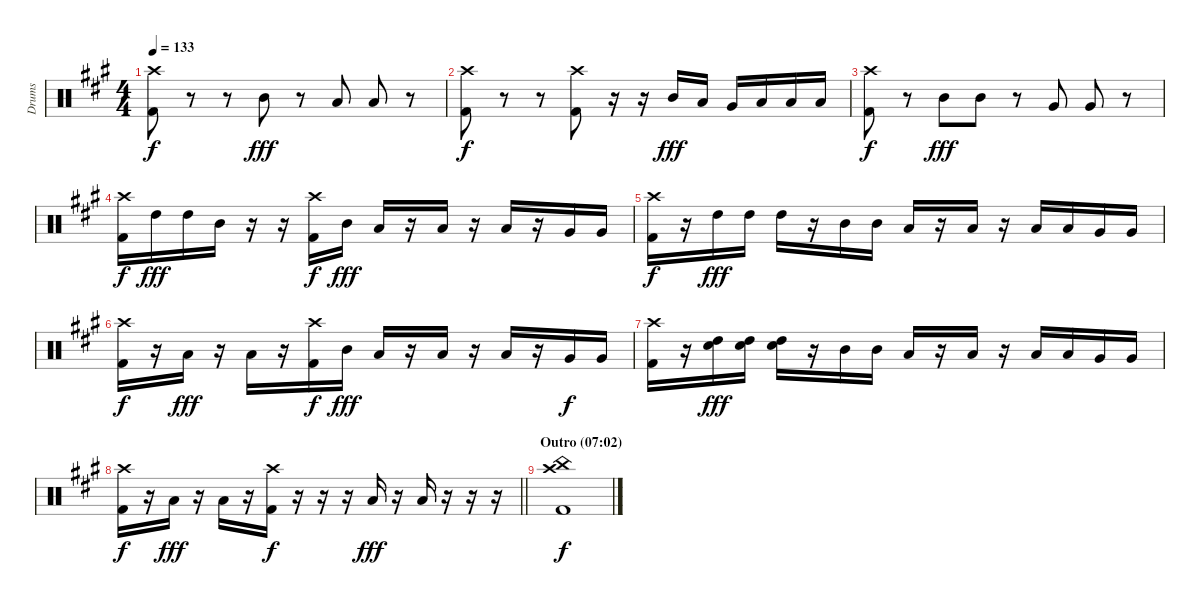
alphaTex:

\track ("Drums" "Drums") {instrument percussion}
\staff {score}
\articulation defaults
\ts (4 4)
\tempo 133
\clef neutral
\ks a
("Crash high (hit)" "Kick (hit) 2").8{dy f} r.8 r.8 "Mid Tom (hit)".8{dy fff} r.8 "Low Tom (hit)".8 "Low Tom (hit)".8 r.8 |
("Crash high (hit)" "Kick (hit) 2").8{dy f} r.8 r.8 ("Crash high (hit)" "Kick (hit) 2").8 r.16 r.16 "Mid Tom (hit)".16{dy fff} "Low Tom (hit)".16 "Very Low Tom (hit)".16 "Low Floor Tom (hit)".16 "Low Floor Tom (hit)".16 "Low Floor Tom (hit)".16 |
("Crash high (hit)" "Kick (hit) 2").8{dy f} r.8 "Mid Tom (hit)".8{dy fff} "Mid Tom (hit)".8 r.8 "Very Low Tom (hit)".8 "Very Low Tom (hit)".8 r.8 |
("Crash high (hit)" "Kick (hit) 2").16{dy f} "High Tom (hit)".16{dy fff} "High Tom (hit)".16 "Mid Tom (hit)".16 r.16 r.16 ("Crash high (hit)" "Kick (hit) 2").16{dy f} "Mid Tom (hit)".16{dy fff} "Low Tom (hit)".16 r.16 "Low Tom (hit)".16 r.16 "Low Tom (hit)".16 r.16 "Very Low Tom (hit)".16 "Very Low Tom (hit)".16 |
("Crash high (hit)" "Kick (hit) 2").16{dy f} r.16 "High Tom (hit)".16{dy fff} "High Tom (hit)".16 "High Tom (hit)".16 r.16 "Mid Tom (hit)".16 "Mid Tom (hit)".16 "Low Tom (hit)".16 r.16 "Low Tom (hit)".16 r.16 "Low Tom (hit)".16 "Low Tom (hit)".16 "Very Low Tom (hit)".16 "Very Low Tom (hit)".16 |
("Crash high (hit)" "Kick (hit) 2").16{dy f} r.16 "Low Tom (hit)".16{dy fff} r.16 "Low Tom (hit)".16 r.16 ("Crash high (hit)" "Kick (hit) 2").16{dy f} "Mid Tom (hit)".16{dy fff} "Low Tom (hit)".16 r.16 "Low Tom (hit)".16 r.16 "Low Tom (hit)".16 r.16 "Very Low Tom (hit)".16{dy f} "Very Low Tom (hit)".16 |
("Crash high (hit)" "Kick (hit) 2").16 r.16 ("High Tom (hit)" "Snare (hit) 2").16{dy fff} ("High Tom (hit)" "Snare (hit) 2").16 ("High Tom (hit)" "Snare (hit) 2").16 r.16 "Mid Tom (hit)".16 "Mid Tom (hit)".16 "Low Tom (hit)".16 r.16 "Low Tom (hit)".16 r.16 "Low Tom (hit)".16 "Low Tom (hit)".16 "Very Low Tom (hit)".16 "Very Low Tom (hit)".16 |
\barLineRight lightlight
("Crash high (hit)" "Kick (hit) 2").16{dy f} r.16 "Low Tom (hit)".16{dy fff} r.16 "Low Tom (hit)".16 r.16 ("Crash high (hit)" "Kick (hit) 2").16{dy f} r.16 r.16 r.16 "Low Tom (hit)".16{dy fff} r.16 "Low Tom (hit)".16 r.16 r.16 r.16 |
\section ("" "Outro (07:02)")
("Crash high (hit)" "China (hit)" "Kick (hit) 2").1{dy f}
